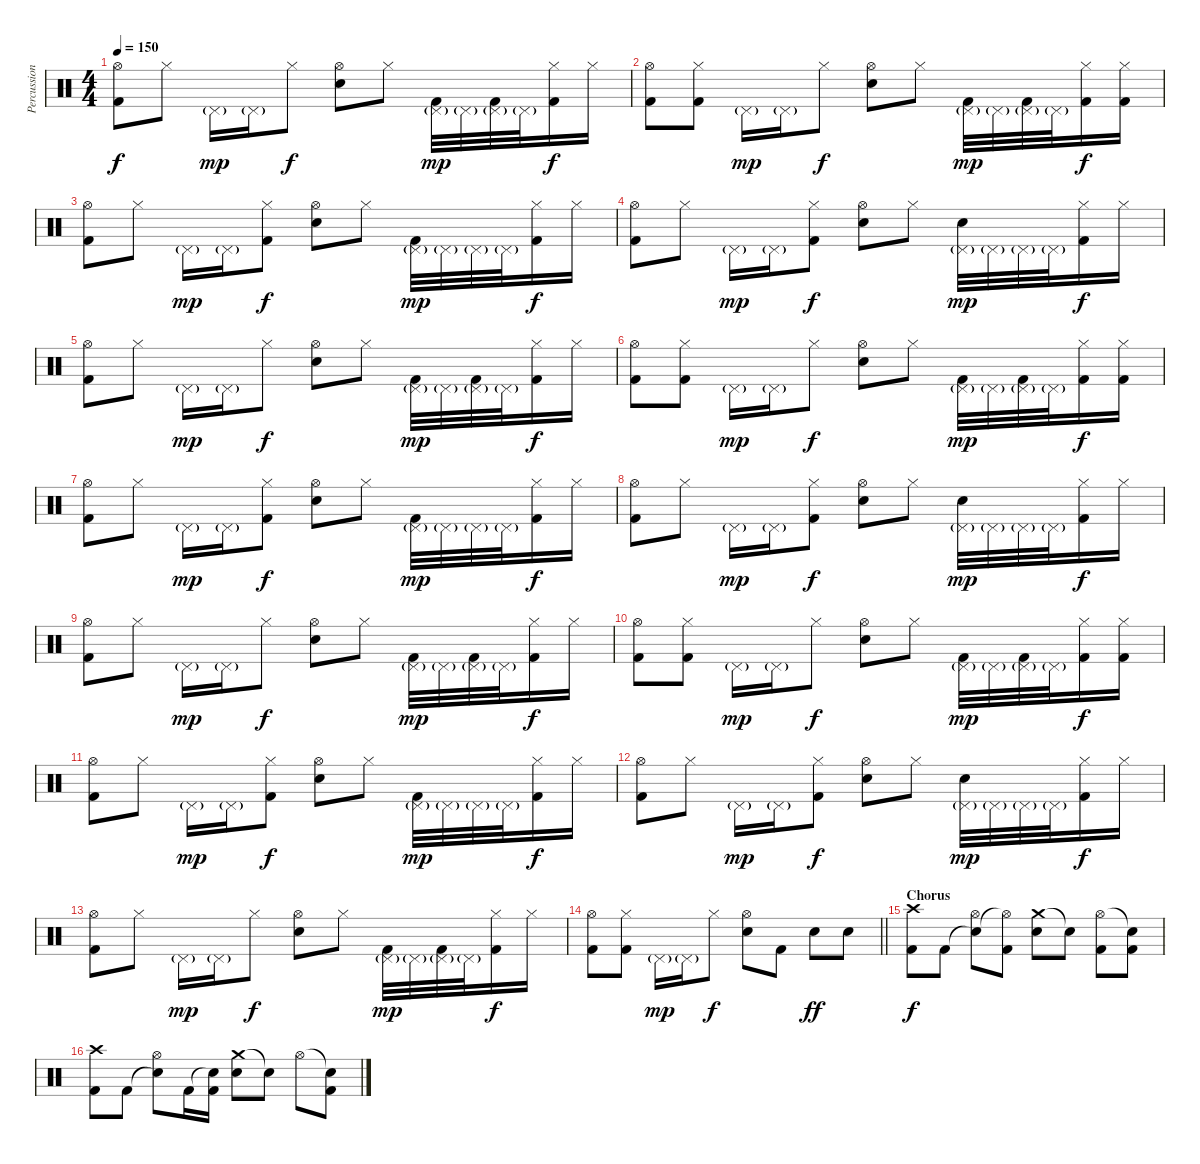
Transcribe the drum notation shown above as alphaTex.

\track ("Percussion" "Percussion") {instrument percussion}
\staff {score}
\articulation defaults
\ts (4 4)
\tempo 150
\clef neutral
\ks c
("Hi-Hat (open)" "Kick (hit) 2").8{dy f} "Hi-Hat (closed)".8 "Pedal Hi-Hat (hit)"{g}.16{dy mp} "Pedal Hi-Hat (hit)"{g}.16 "Hi-Hat (closed)".8{dy f} ("Hi-Hat (open)" "Electric Snare (hit)").8 "Hi-Hat (closed)".8 ("Pedal Hi-Hat (hit)"{g} "Kick (hit) 2").32{dy mp} "Pedal Hi-Hat (hit)"{g}.32 ("Pedal Hi-Hat (hit)"{g} "Kick (hit) 2").32 "Pedal Hi-Hat (hit)"{g}.32 ("Hi-Hat (closed)" "Kick (hit) 2").16{dy f} "Hi-Hat (closed)".16 |
("Hi-Hat (open)" "Kick (hit) 2").8 ("Hi-Hat (closed)" "Kick (hit) 2").8 "Pedal Hi-Hat (hit)"{g}.16{dy mp} "Pedal Hi-Hat (hit)"{g}.16 "Hi-Hat (closed)".8{dy f} ("Hi-Hat (open)" "Electric Snare (hit)").8 "Hi-Hat (closed)".8 ("Pedal Hi-Hat (hit)"{g} "Kick (hit) 2").32{dy mp} "Pedal Hi-Hat (hit)"{g}.32 ("Pedal Hi-Hat (hit)"{g} "Kick (hit) 2").32 "Pedal Hi-Hat (hit)"{g}.32 ("Hi-Hat (closed)" "Kick (hit) 2").16{dy f} ("Hi-Hat (closed)" "Kick (hit) 2").16 |
("Hi-Hat (open)" "Kick (hit) 2").8 "Hi-Hat (closed)".8 "Pedal Hi-Hat (hit)"{g}.16{dy mp} "Pedal Hi-Hat (hit)"{g}.16 ("Hi-Hat (closed)" "Kick (hit) 2").8{dy f} ("Hi-Hat (open)" "Electric Snare (hit)").8 "Hi-Hat (closed)".8 ("Pedal Hi-Hat (hit)"{g} "Kick (hit) 2").32{dy mp} "Pedal Hi-Hat (hit)"{g}.32 "Pedal Hi-Hat (hit)"{g}.32 "Pedal Hi-Hat (hit)"{g}.32 ("Hi-Hat (closed)" "Kick (hit) 2").16{dy f} "Hi-Hat (closed)".16 |
("Hi-Hat (open)" "Kick (hit) 2").8 "Hi-Hat (closed)".8 "Pedal Hi-Hat (hit)"{g}.16{dy mp} "Pedal Hi-Hat (hit)"{g}.16 ("Hi-Hat (closed)" "Kick (hit) 2").8{dy f} ("Hi-Hat (open)" "Electric Snare (hit)").8 "Hi-Hat (closed)".8 ("Pedal Hi-Hat (hit)"{g} "Electric Snare (hit)").32{dy mp} "Pedal Hi-Hat (hit)"{g}.32 "Pedal Hi-Hat (hit)"{g}.32 "Pedal Hi-Hat (hit)"{g}.32 ("Hi-Hat (closed)" "Kick (hit) 2").16{dy f} "Hi-Hat (closed)".16 |
("Hi-Hat (open)" "Kick (hit) 2").8 "Hi-Hat (closed)".8 "Pedal Hi-Hat (hit)"{g}.16{dy mp} "Pedal Hi-Hat (hit)"{g}.16 "Hi-Hat (closed)".8{dy f} ("Hi-Hat (open)" "Electric Snare (hit)").8 "Hi-Hat (closed)".8 ("Pedal Hi-Hat (hit)"{g} "Kick (hit) 2").32{dy mp} "Pedal Hi-Hat (hit)"{g}.32 ("Pedal Hi-Hat (hit)"{g} "Kick (hit) 2").32 "Pedal Hi-Hat (hit)"{g}.32 ("Hi-Hat (closed)" "Kick (hit) 2").16{dy f} "Hi-Hat (closed)".16 |
("Hi-Hat (open)" "Kick (hit) 2").8 ("Hi-Hat (closed)" "Kick (hit) 2").8 "Pedal Hi-Hat (hit)"{g}.16{dy mp} "Pedal Hi-Hat (hit)"{g}.16 "Hi-Hat (closed)".8{dy f} ("Hi-Hat (open)" "Electric Snare (hit)").8 "Hi-Hat (closed)".8 ("Pedal Hi-Hat (hit)"{g} "Kick (hit) 2").32{dy mp} "Pedal Hi-Hat (hit)"{g}.32 ("Pedal Hi-Hat (hit)"{g} "Kick (hit) 2").32 "Pedal Hi-Hat (hit)"{g}.32 ("Hi-Hat (closed)" "Kick (hit) 2").16{dy f} ("Hi-Hat (closed)" "Kick (hit) 2").16 |
("Hi-Hat (open)" "Kick (hit) 2").8 "Hi-Hat (closed)".8 "Pedal Hi-Hat (hit)"{g}.16{dy mp} "Pedal Hi-Hat (hit)"{g}.16 ("Hi-Hat (closed)" "Kick (hit) 2").8{dy f} ("Hi-Hat (open)" "Electric Snare (hit)").8 "Hi-Hat (closed)".8 ("Pedal Hi-Hat (hit)"{g} "Kick (hit) 2").32{dy mp} "Pedal Hi-Hat (hit)"{g}.32 "Pedal Hi-Hat (hit)"{g}.32 "Pedal Hi-Hat (hit)"{g}.32 ("Hi-Hat (closed)" "Kick (hit) 2").16{dy f} "Hi-Hat (closed)".16 |
("Hi-Hat (open)" "Kick (hit) 2").8 "Hi-Hat (closed)".8 "Pedal Hi-Hat (hit)"{g}.16{dy mp} "Pedal Hi-Hat (hit)"{g}.16 ("Hi-Hat (closed)" "Kick (hit) 2").8{dy f} ("Hi-Hat (open)" "Electric Snare (hit)").8 "Hi-Hat (closed)".8 ("Pedal Hi-Hat (hit)"{g} "Electric Snare (hit)").32{dy mp} "Pedal Hi-Hat (hit)"{g}.32 "Pedal Hi-Hat (hit)"{g}.32 "Pedal Hi-Hat (hit)"{g}.32 ("Hi-Hat (closed)" "Kick (hit) 2").16{dy f} "Hi-Hat (closed)".16 |
("Hi-Hat (open)" "Kick (hit) 2").8 "Hi-Hat (closed)".8 "Pedal Hi-Hat (hit)"{g}.16{dy mp} "Pedal Hi-Hat (hit)"{g}.16 "Hi-Hat (closed)".8{dy f} ("Hi-Hat (open)" "Electric Snare (hit)").8 "Hi-Hat (closed)".8 ("Pedal Hi-Hat (hit)"{g} "Kick (hit) 2").32{dy mp} "Pedal Hi-Hat (hit)"{g}.32 ("Pedal Hi-Hat (hit)"{g} "Kick (hit) 2").32 "Pedal Hi-Hat (hit)"{g}.32 ("Hi-Hat (closed)" "Kick (hit) 2").16{dy f} "Hi-Hat (closed)".16 |
("Hi-Hat (open)" "Kick (hit) 2").8 ("Hi-Hat (closed)" "Kick (hit) 2").8 "Pedal Hi-Hat (hit)"{g}.16{dy mp} "Pedal Hi-Hat (hit)"{g}.16 "Hi-Hat (closed)".8{dy f} ("Hi-Hat (open)" "Electric Snare (hit)").8 "Hi-Hat (closed)".8 ("Pedal Hi-Hat (hit)"{g} "Kick (hit) 2").32{dy mp} "Pedal Hi-Hat (hit)"{g}.32 ("Pedal Hi-Hat (hit)"{g} "Kick (hit) 2").32 "Pedal Hi-Hat (hit)"{g}.32 ("Hi-Hat (closed)" "Kick (hit) 2").16{dy f} ("Hi-Hat (closed)" "Kick (hit) 2").16 |
("Hi-Hat (open)" "Kick (hit) 2").8 "Hi-Hat (closed)".8 "Pedal Hi-Hat (hit)"{g}.16{dy mp} "Pedal Hi-Hat (hit)"{g}.16 ("Hi-Hat (closed)" "Kick (hit) 2").8{dy f} ("Hi-Hat (open)" "Electric Snare (hit)").8 "Hi-Hat (closed)".8 ("Pedal Hi-Hat (hit)"{g} "Kick (hit) 2").32{dy mp} "Pedal Hi-Hat (hit)"{g}.32 "Pedal Hi-Hat (hit)"{g}.32 "Pedal Hi-Hat (hit)"{g}.32 ("Hi-Hat (closed)" "Kick (hit) 2").16{dy f} "Hi-Hat (closed)".16 |
("Hi-Hat (open)" "Kick (hit) 2").8 "Hi-Hat (closed)".8 "Pedal Hi-Hat (hit)"{g}.16{dy mp} "Pedal Hi-Hat (hit)"{g}.16 ("Hi-Hat (closed)" "Kick (hit) 2").8{dy f} ("Hi-Hat (open)" "Electric Snare (hit)").8 "Hi-Hat (closed)".8 ("Pedal Hi-Hat (hit)"{g} "Electric Snare (hit)").32{dy mp} "Pedal Hi-Hat (hit)"{g}.32 "Pedal Hi-Hat (hit)"{g}.32 "Pedal Hi-Hat (hit)"{g}.32 ("Hi-Hat (closed)" "Kick (hit) 2").16{dy f} "Hi-Hat (closed)".16 |
("Hi-Hat (open)" "Kick (hit) 2").8 "Hi-Hat (closed)".8 "Pedal Hi-Hat (hit)"{g}.16{dy mp} "Pedal Hi-Hat (hit)"{g}.16 "Hi-Hat (closed)".8{dy f} ("Hi-Hat (open)" "Electric Snare (hit)").8 "Hi-Hat (closed)".8 ("Pedal Hi-Hat (hit)"{g} "Kick (hit) 2").32{dy mp} "Pedal Hi-Hat (hit)"{g}.32 ("Pedal Hi-Hat (hit)"{g} "Kick (hit) 2").32 "Pedal Hi-Hat (hit)"{g}.32 ("Hi-Hat (closed)" "Kick (hit) 2").16{dy f} "Hi-Hat (closed)".16 |
\barLineRight lightlight
("Hi-Hat (open)" "Kick (hit) 2").8 ("Hi-Hat (closed)" "Kick (hit) 2").8 "Pedal Hi-Hat (hit)"{g}.16{dy mp} "Pedal Hi-Hat (hit)"{g}.16 "Hi-Hat (closed)".8{dy f} ("Hi-Hat (open)" "Electric Snare (hit)").8 "Kick (hit) 2".8 "Electric Snare (hit)".8{dy ff} "Electric Snare (hit)".8 |
\section ("" "Chorus")
("Crash high (hit)" "Kick (hit) 2").8{dy f} "Kick (hit) 2".8 ("Snare (hit)"{t} "Hi-Hat (open)").8 ("Hi-Hat (open)"{t} "Kick (hit) 2").8 ("Crash medium (hit)" "Electric Snare (hit)").8 "Snare (hit)"{t}.8 ("Hi-Hat (open)" "Kick (hit) 2").8 ("Snare (hit)"{t} "Kick (hit) 2").8 |
("Crash high (hit)" "Kick (hit) 2").8 "Kick (hit) 2".8 ("Snare (hit)"{t} "Hi-Hat (open)").8 "Kick (hit) 2".16 ("Snare (hit)"{t} "Kick (hit) 2").16 ("Crash medium (hit)" "Electric Snare (hit)").8 "Snare (hit)"{t}.8 "Hi-Hat (open)".8 ("Snare (hit)"{t} "Kick (hit) 2").8
